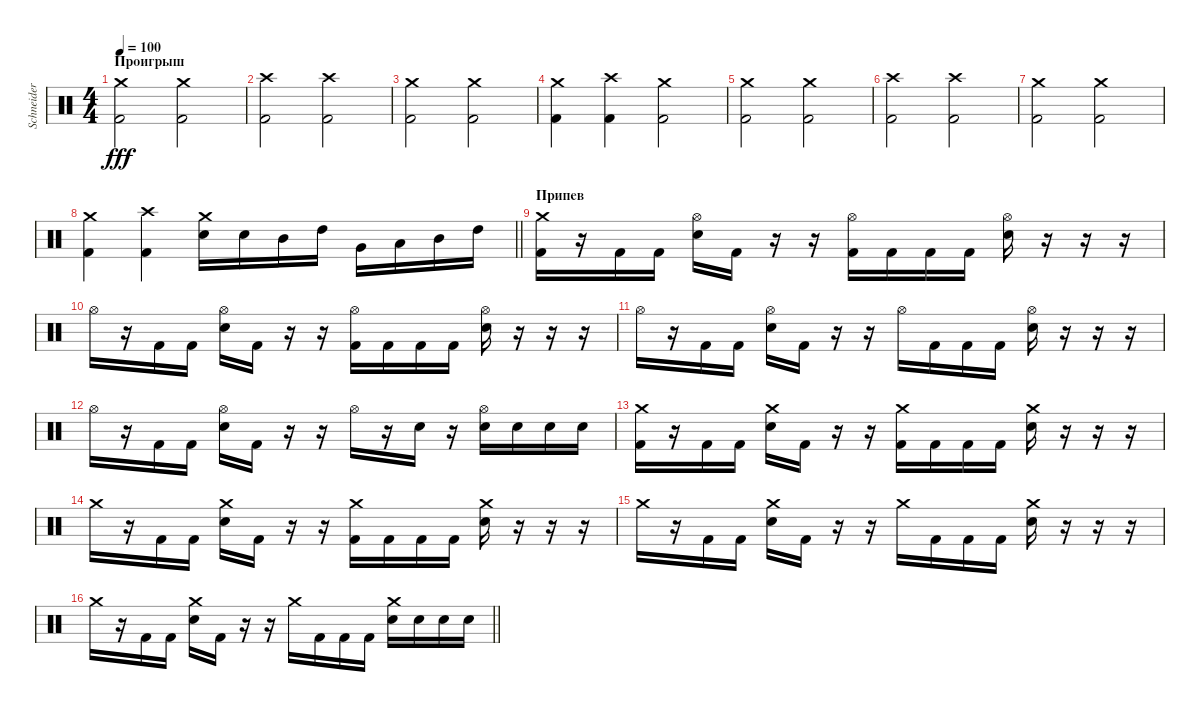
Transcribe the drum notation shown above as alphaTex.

\track ("Schneider" "Schneider") {instrument percussion}
\staff {score}
\articulation defaults
\ts (4 4)
\section ("" "Проигрыш")
\tempo 100
\clef neutral
\ks c
("Crash medium (hit)" "Kick (hit) 2").2{dy fff} ("Crash medium (hit)" "Kick (hit) 2").2 |
("Crash high (hit)" "Kick (hit) 2").2 ("Crash high (hit)" "Kick (hit) 2").2 |
("Crash medium (hit)" "Kick (hit) 2").2 ("Crash medium (hit)" "Kick (hit) 2").2 |
("Kick (hit) 2" "Crash medium (hit)").4 ("Kick (hit) 2" "Crash high (hit)").4 ("Kick (hit) 2" "Crash medium (hit)").2 |
("Crash medium (hit)" "Kick (hit) 2").2 ("Crash medium (hit)" "Kick (hit) 2").2 |
("Crash high (hit)" "Kick (hit) 2").2 ("Crash high (hit)" "Kick (hit) 2").2 |
("Crash medium (hit)" "Kick (hit) 2").2 ("Crash medium (hit)" "Kick (hit) 2").2 |
\barLineRight lightlight
("Kick (hit) 2" "Crash medium (hit)").4 ("Kick (hit) 2" "Crash high (hit)").4 ("Electric Snare (hit)" "Crash medium (hit)").16 "Electric Snare (hit)".16 "Mid Tom (hit)".16 "High Tom (hit)".16 "Very Low Tom (hit)".16 "Low Tom (hit)".16 "Mid Tom (hit)".16 "High Tom (hit)".16 |
\section ("" "Припев")
("Crash medium (hit)" "Kick (hit) 2").16 r.16 "Kick (hit) 2".16 "Kick (hit) 2".16 ("Hi-Hat (open)" "Electric Snare (hit)").16 "Kick (hit) 2".16 r.16 r.16 ("Hi-Hat (open)" "Kick (hit) 2").16 "Kick (hit) 2".16 "Kick (hit) 2".16 "Kick (hit) 2".16 ("Hi-Hat (open)" "Electric Snare (hit)").16 r.16 r.16 r.16 |
"Hi-Hat (open)".16 r.16 "Kick (hit) 2".16 "Kick (hit) 2".16 ("Hi-Hat (open)" "Electric Snare (hit)").16 "Kick (hit) 2".16 r.16 r.16 ("Hi-Hat (open)" "Kick (hit) 2").16 "Kick (hit) 2".16 "Kick (hit) 2".16 "Kick (hit) 2".16 ("Hi-Hat (open)" "Electric Snare (hit)").16 r.16 r.16 r.16 |
"Hi-Hat (open)".16 r.16 "Kick (hit) 2".16 "Kick (hit) 2".16 ("Hi-Hat (open)" "Electric Snare (hit)").16 "Kick (hit) 2".16 r.16 r.16 "Hi-Hat (open)".16 "Kick (hit) 2".16 "Kick (hit) 2".16 "Kick (hit) 2".16 ("Hi-Hat (open)" "Electric Snare (hit)").16 r.16 r.16 r.16 |
"Hi-Hat (open)".16 r.16 "Kick (hit) 2".16 "Kick (hit) 2".16 ("Hi-Hat (open)" "Electric Snare (hit)").16 "Kick (hit) 2".16 r.16 r.16 "Hi-Hat (open)".16 r.16 "Electric Snare (hit)".16 r.16 ("Hi-Hat (open)" "Electric Snare (hit)").16 "Electric Snare (hit)".16 "Electric Snare (hit)".16 "Electric Snare (hit)".16 |
("Crash medium (hit)" "Kick (hit) 2").16 r.16 "Kick (hit) 2".16 "Kick (hit) 2".16 ("Crash medium (hit)" "Electric Snare (hit)").16 "Kick (hit) 2".16 r.16 r.16 ("Crash medium (hit)" "Kick (hit) 2").16 "Kick (hit) 2".16 "Kick (hit) 2".16 "Kick (hit) 2".16 ("Crash medium (hit)" "Electric Snare (hit)").16 r.16 r.16 r.16 |
"Crash medium (hit)".16 r.16 "Kick (hit) 2".16 "Kick (hit) 2".16 ("Crash medium (hit)" "Electric Snare (hit)").16 "Kick (hit) 2".16 r.16 r.16 ("Crash medium (hit)" "Kick (hit) 2").16 "Kick (hit) 2".16 "Kick (hit) 2".16 "Kick (hit) 2".16 ("Crash medium (hit)" "Electric Snare (hit)").16 r.16 r.16 r.16 |
"Crash medium (hit)".16 r.16 "Kick (hit) 2".16 "Kick (hit) 2".16 ("Crash medium (hit)" "Electric Snare (hit)").16 "Kick (hit) 2".16 r.16 r.16 "Crash medium (hit)".16 "Kick (hit) 2".16 "Kick (hit) 2".16 "Kick (hit) 2".16 ("Crash medium (hit)" "Electric Snare (hit)").16 r.16 r.16 r.16 |
\barLineRight lightlight "Crash medium (hit)".16
r.16 "Kick (hit) 2".16 "Kick (hit) 2".16 ("Crash medium (hit)" "Electric Snare (hit)").16 "Kick (hit) 2".16 r.16 r.16 "Crash medium (hit)".16 "Kick (hit) 2".16 "Kick (hit) 2".16 "Kick (hit) 2".16 ("Crash medium (hit)" "Electric Snare (hit)").16 "Electric Snare (hit)".16 "Electric Snare (hit)".16 "Electric Snare (hit)".16
